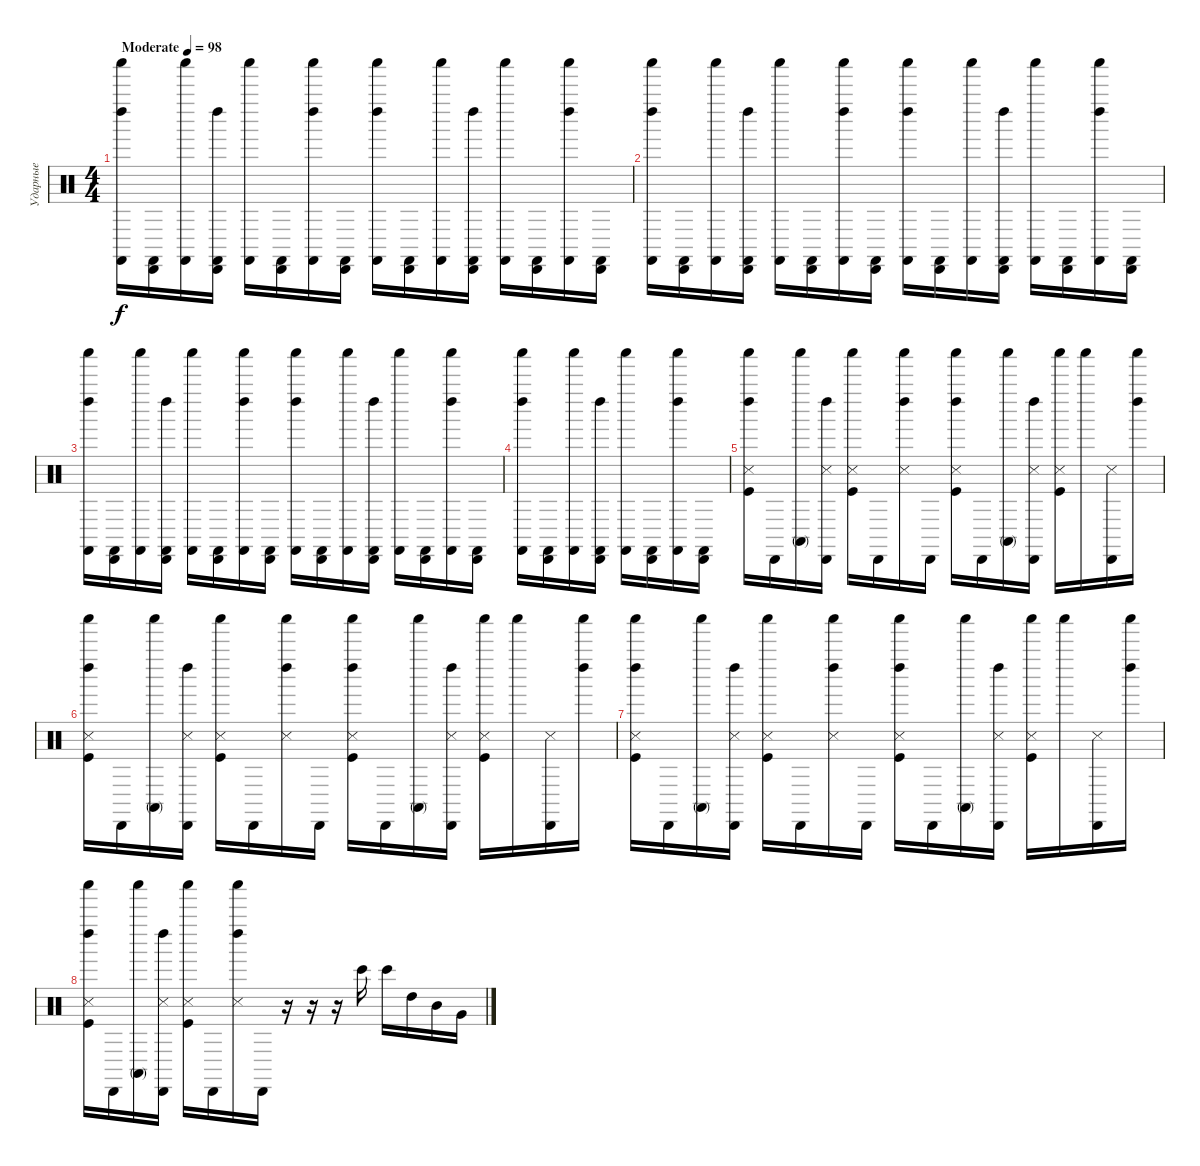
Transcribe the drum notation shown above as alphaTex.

\track ("Ударные" "Ударные") {instrument percussion}
\staff {score}
\articulation defaults
\ts (4 4)
\tempo (98 "Moderate")
\clef neutral
\ks c
("Castanets (hit)" "Left Maraca (hit)" "Shaker (hit)").16{dy f} ("Castanets (hit)" "Cabasa (hit)").16 ("Castanets (hit)" "Shaker (hit)").16 ("Castanets (hit)" "Left Maraca (hit)" "Cabasa (hit)").16 ("Castanets (hit)" "Shaker (hit)").16 ("Castanets (hit)" "Cabasa (hit)").16 ("Castanets (hit)" "Left Maraca (hit)" "Shaker (hit)").16 ("Castanets (hit)" "Cabasa (hit)").16 ("Castanets (hit)" "Left Maraca (hit)" "Shaker (hit)").16 ("Castanets (hit)" "Cabasa (hit)").16 ("Castanets (hit)" "Shaker (hit)").16 ("Castanets (hit)" "Left Maraca (hit)" "Cabasa (hit)").16 ("Castanets (hit)" "Shaker (hit)").16 ("Castanets (hit)" "Cabasa (hit)").16 ("Castanets (hit)" "Left Maraca (hit)" "Shaker (hit)").16 ("Castanets (hit)" "Cabasa (hit)").16 |
("Castanets (hit)" "Left Maraca (hit)" "Shaker (hit)").16 ("Castanets (hit)" "Cabasa (hit)").16 ("Castanets (hit)" "Shaker (hit)").16 ("Castanets (hit)" "Left Maraca (hit)" "Cabasa (hit)").16 ("Castanets (hit)" "Shaker (hit)").16 ("Castanets (hit)" "Cabasa (hit)").16 ("Castanets (hit)" "Left Maraca (hit)" "Shaker (hit)").16 ("Castanets (hit)" "Cabasa (hit)").16 ("Castanets (hit)" "Left Maraca (hit)" "Shaker (hit)").16 ("Castanets (hit)" "Cabasa (hit)").16 ("Castanets (hit)" "Shaker (hit)").16 ("Castanets (hit)" "Left Maraca (hit)" "Cabasa (hit)").16 ("Castanets (hit)" "Shaker (hit)").16 ("Castanets (hit)" "Cabasa (hit)").16 ("Castanets (hit)" "Left Maraca (hit)" "Shaker (hit)").16 ("Castanets (hit)" "Cabasa (hit)").16 |
("Castanets (hit)" "Left Maraca (hit)" "Shaker (hit)").16 ("Castanets (hit)" "Cabasa (hit)").16 ("Castanets (hit)" "Shaker (hit)").16 ("Castanets (hit)" "Left Maraca (hit)" "Cabasa (hit)").16 ("Castanets (hit)" "Shaker (hit)").16 ("Castanets (hit)" "Cabasa (hit)").16 ("Castanets (hit)" "Left Maraca (hit)" "Shaker (hit)").16 ("Castanets (hit)" "Cabasa (hit)").16 ("Castanets (hit)" "Left Maraca (hit)" "Shaker (hit)").16 ("Castanets (hit)" "Cabasa (hit)").16 ("Castanets (hit)" "Shaker (hit)").16 ("Castanets (hit)" "Left Maraca (hit)" "Cabasa (hit)").16 ("Castanets (hit)" "Shaker (hit)").16 ("Castanets (hit)" "Cabasa (hit)").16 ("Castanets (hit)" "Left Maraca (hit)" "Shaker (hit)").16 ("Castanets (hit)" "Cabasa (hit)").16 |
("Castanets (hit)" "Left Maraca (hit)" "Shaker (hit)").16 ("Castanets (hit)" "Cabasa (hit)").16 ("Castanets (hit)" "Shaker (hit)").16 ("Castanets (hit)" "Left Maraca (hit)" "Cabasa (hit)").16 ("Castanets (hit)" "Shaker (hit)").16 ("Castanets (hit)" "Cabasa (hit)").16 ("Castanets (hit)" "Left Maraca (hit)" "Shaker (hit)").16 ("Castanets (hit)" "Cabasa (hit)").16 |
("Snare (side stick) 3" "Kick (hit)" "Left Maraca (hit)" "Shaker (hit)").16 "Cabasa (hit)".16 ("Conga high (mute)" "Shaker (hit)").16 ("Snare (side stick) 3" "Left Maraca (hit)" "Cabasa (hit)").16 ("Kick (hit)" "Snare (side stick) 3" "Shaker (hit)").16 "Cabasa (hit)".16 ("Snare (side stick) 3" "Left Maraca (hit)" "Shaker (hit)").16 "Cabasa (hit)".16 ("Snare (side stick) 3" "Kick (hit)" "Left Maraca (hit)" "Shaker (hit)").16 "Cabasa (hit)".16 ("Conga high (mute)" "Shaker (hit)").16 ("Snare (side stick) 3" "Left Maraca (hit)" "Cabasa (hit)").16 ("Kick (hit)" "Snare (side stick) 3" "Shaker (hit)").16 "Shaker (hit)".16 ("Snare (side stick) 3" "Cabasa (hit)").16 ("Left Maraca (hit)" "Shaker (hit)").16 |
("Snare (side stick) 3" "Kick (hit)" "Left Maraca (hit)" "Shaker (hit)").16 "Cabasa (hit)".16 ("Conga high (mute)" "Shaker (hit)").16 ("Snare (side stick) 3" "Left Maraca (hit)" "Cabasa (hit)").16 ("Kick (hit)" "Snare (side stick) 3" "Shaker (hit)").16 "Cabasa (hit)".16 ("Snare (side stick) 3" "Left Maraca (hit)" "Shaker (hit)").16 "Cabasa (hit)".16 ("Snare (side stick) 3" "Kick (hit)" "Left Maraca (hit)" "Shaker (hit)").16 "Cabasa (hit)".16 ("Conga high (mute)" "Shaker (hit)").16 ("Snare (side stick) 3" "Left Maraca (hit)" "Cabasa (hit)").16 ("Kick (hit)" "Snare (side stick) 3" "Shaker (hit)").16 "Shaker (hit)".16 ("Snare (side stick) 3" "Cabasa (hit)").16 ("Left Maraca (hit)" "Shaker (hit)").16 |
("Snare (side stick) 3" "Kick (hit)" "Left Maraca (hit)" "Shaker (hit)").16 "Cabasa (hit)".16 ("Conga high (mute)" "Shaker (hit)").16 ("Snare (side stick) 3" "Left Maraca (hit)" "Cabasa (hit)").16 ("Kick (hit)" "Snare (side stick) 3" "Shaker (hit)").16 "Cabasa (hit)".16 ("Snare (side stick) 3" "Left Maraca (hit)" "Shaker (hit)").16 "Cabasa (hit)".16 ("Snare (side stick) 3" "Kick (hit)" "Left Maraca (hit)" "Shaker (hit)").16 "Cabasa (hit)".16 ("Conga high (mute)" "Shaker (hit)").16 ("Snare (side stick) 3" "Left Maraca (hit)" "Cabasa (hit)").16 ("Kick (hit)" "Snare (side stick) 3" "Shaker (hit)").16 "Shaker (hit)".16 ("Snare (side stick) 3" "Cabasa (hit)").16 ("Left Maraca (hit)" "Shaker (hit)").16 |
("Snare (side stick) 3" "Kick (hit)" "Left Maraca (hit)" "Shaker (hit)").16 "Cabasa (hit)".16 ("Conga high (mute)" "Shaker (hit)").16 ("Snare (side stick) 3" "Left Maraca (hit)" "Cabasa (hit)").16 ("Kick (hit)" "Snare (side stick) 3" "Shaker (hit)").16 "Cabasa (hit)".16 ("Snare (side stick) 3" "Left Maraca (hit)" "Shaker (hit)").16 "Cabasa (hit)".16 r.16 r.16 r.16 "Bongo High (hit)".16 "Bongo High (hit)".16 "High Tom (hit)".16 "Mid Tom (hit)".16 "Very Low Tom (hit)".16
